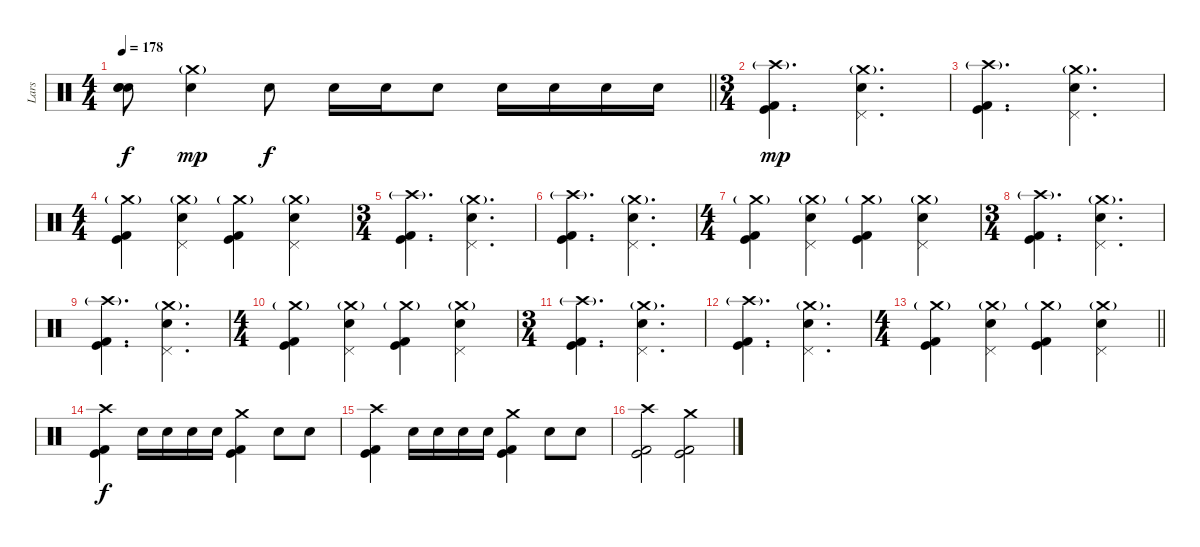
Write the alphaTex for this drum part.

\track ("Lars" "Lars") {instrument percussion}
\staff {score}
\articulation defaults
\ts (4 4)
\tempo 178
\clef neutral
\barLineRight lightlight
\ks c
("Snare (hit)"{t} "Snare (hit)"{t} "Snare (hit)"{t}).8{dy f} ("Crash medium (hit)"{g} "Electric Snare (hit)").4{dy mp} "Electric Snare (hit)".8{dy f} "Electric Snare (hit)".16 "Electric Snare (hit)".16 "Electric Snare (hit)".8 "Electric Snare (hit)".16 "Electric Snare (hit)".16 "Electric Snare (hit)".16 "Electric Snare (hit)".16 |
\ts (3 4)
\section ("" "")
("Crash high (hit)"{g} "Kick (hit)" "Kick (hit) 2").4{d dy mp} ("Crash medium (hit)"{g} "Pedal Hi-Hat (hit)" "Electric Snare (hit)").4{d} |
("Crash high (hit)"{g} "Kick (hit)" "Kick (hit) 2").4{d} ("Crash medium (hit)"{g} "Pedal Hi-Hat (hit)" "Electric Snare (hit)").4{d} |
\ts (4 4)
("Crash medium (hit)"{g} "Kick (hit)" "Kick (hit) 2").4 ("Crash medium (hit)"{g} "Pedal Hi-Hat (hit)" "Electric Snare (hit)").4 ("Crash medium (hit)"{g} "Kick (hit)" "Kick (hit) 2").4 ("Crash medium (hit)"{g} "Pedal Hi-Hat (hit)" "Electric Snare (hit)").4 |
\ts (3 4)
("Crash high (hit)"{g} "Kick (hit)" "Kick (hit) 2").4{d} ("Crash medium (hit)"{g} "Pedal Hi-Hat (hit)" "Electric Snare (hit)").4{d} |
("Crash high (hit)"{g} "Kick (hit)" "Kick (hit) 2").4{d} ("Crash medium (hit)"{g} "Pedal Hi-Hat (hit)" "Electric Snare (hit)").4{d} |
\ts (4 4)
("Crash medium (hit)"{g} "Kick (hit)" "Kick (hit) 2").4 ("Crash medium (hit)"{g} "Pedal Hi-Hat (hit)" "Electric Snare (hit)").4 ("Crash medium (hit)"{g} "Kick (hit)" "Kick (hit) 2").4 ("Crash medium (hit)"{g} "Pedal Hi-Hat (hit)" "Electric Snare (hit)").4 |
\ts (3 4)
("Crash high (hit)"{g} "Kick (hit)" "Kick (hit) 2").4{d} ("Crash medium (hit)"{g} "Pedal Hi-Hat (hit)" "Electric Snare (hit)").4{d} |
("Crash high (hit)"{g} "Kick (hit)" "Kick (hit) 2").4{d} ("Crash medium (hit)"{g} "Pedal Hi-Hat (hit)" "Electric Snare (hit)").4{d} |
\ts (4 4)
("Crash medium (hit)"{g} "Kick (hit)" "Kick (hit) 2").4 ("Crash medium (hit)"{g} "Pedal Hi-Hat (hit)" "Electric Snare (hit)").4 ("Crash medium (hit)"{g} "Kick (hit)" "Kick (hit) 2").4 ("Crash medium (hit)"{g} "Pedal Hi-Hat (hit)" "Electric Snare (hit)").4 |
\ts (3 4)
("Crash high (hit)"{g} "Kick (hit)" "Kick (hit) 2").4{d} ("Crash medium (hit)"{g} "Pedal Hi-Hat (hit)" "Electric Snare (hit)").4{d} |
("Crash high (hit)"{g} "Kick (hit)" "Kick (hit) 2").4{d} ("Crash medium (hit)"{g} "Pedal Hi-Hat (hit)" "Electric Snare (hit)").4{d} |
\ts (4 4)
\barLineRight lightlight
("Crash medium (hit)"{g} "Kick (hit)" "Kick (hit) 2").4 ("Crash medium (hit)"{g} "Pedal Hi-Hat (hit)" "Electric Snare (hit)").4 ("Crash medium (hit)"{g} "Kick (hit)" "Kick (hit) 2").4 ("Crash medium (hit)"{g} "Pedal Hi-Hat (hit)" "Electric Snare (hit)").4 |
\section ("" "")
("Crash high (hit)" "Kick (hit)" "Kick (hit) 2").4{dy f} "Electric Snare (hit)".16 "Electric Snare (hit)".16 "Electric Snare (hit)".16 "Electric Snare (hit)".16 ("Crash medium (hit)" "Kick (hit)" "Kick (hit) 2").4 "Electric Snare (hit)".8 "Electric Snare (hit)".8 |
("Crash high (hit)" "Kick (hit)" "Kick (hit) 2").4 "Electric Snare (hit)".16 "Electric Snare (hit)".16 "Electric Snare (hit)".16 "Electric Snare (hit)".16 ("Crash medium (hit)" "Kick (hit)" "Kick (hit) 2").4 "Electric Snare (hit)".8 "Electric Snare (hit)".8 |
("Crash high (hit)" "Kick (hit)" "Kick (hit) 2").2 ("Crash medium (hit)" "Kick (hit)" "Kick (hit) 2").2
